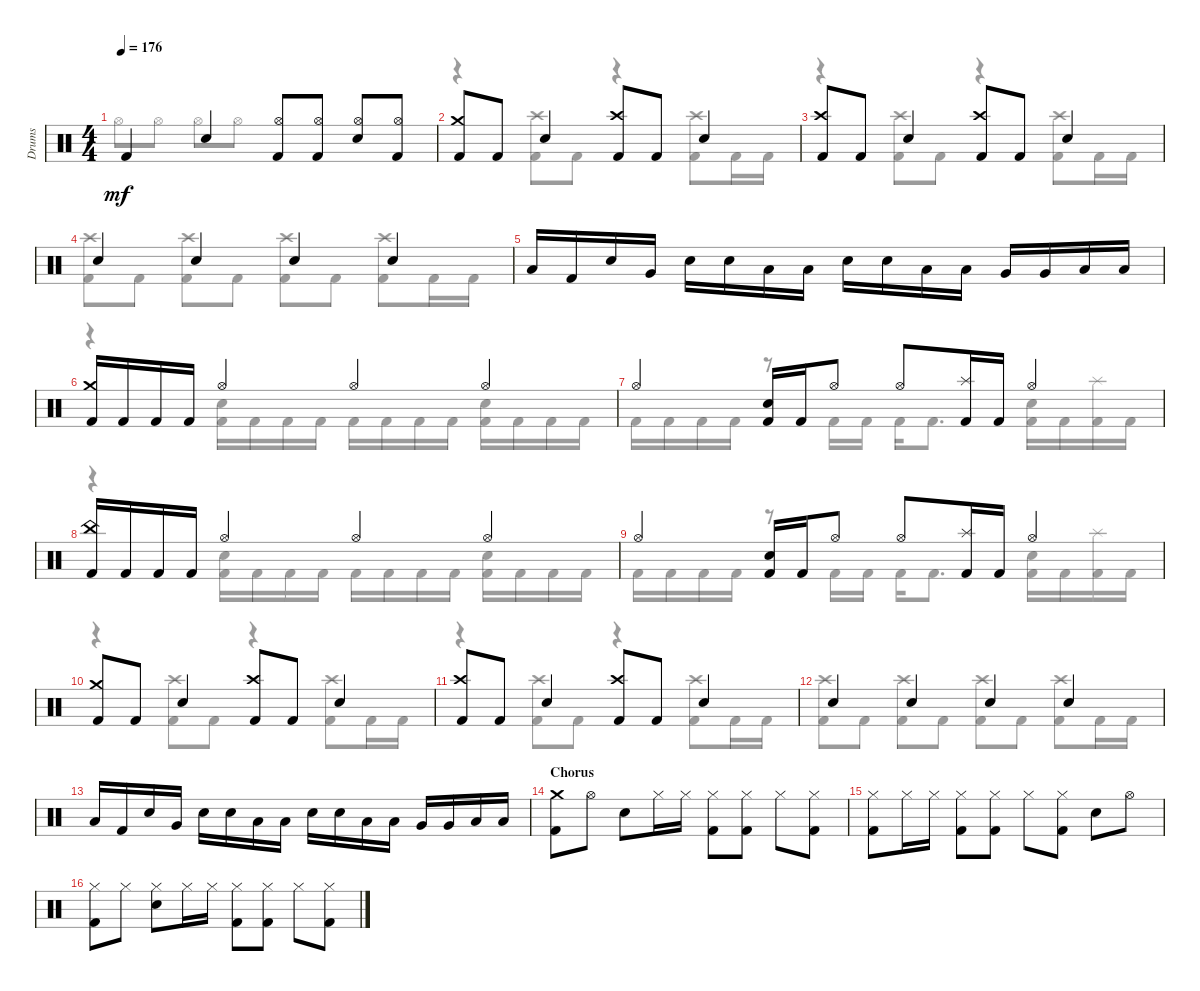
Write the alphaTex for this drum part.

\track ("Drums" "Drums") {instrument percussion}
\staff {score}
\articulation defaults
\voice
\ts (4 4)
\tempo 176
\clef neutral
\ks aminor "Kick (hit) 2".4{dy mf} "Snare (hit) 2".4
("Kick (hit) 2" "Hi-Hat (open)").8 ("Kick (hit) 2" "Hi-Hat (open)").8 ("Hi-Hat (open)" "Snare (hit) 2").8 ("Hi-Hat (open)" "Kick (hit) 2").8 |
("Crash medium (hit)" "Kick (hit) 2").8 "Kick (hit) 2".8 "Snare (hit) 2".4 ("Kick (hit) 2" "Crash high (hit)").8 "Kick (hit) 2".8 "Snare (hit) 2".4 |
("Crash high (hit)" "Kick (hit) 2").8 "Kick (hit) 2".8 "Snare (hit) 2".4 ("Kick (hit) 2" "Crash high (hit)").8 "Kick (hit) 2".8 "Snare (hit) 2".4 |
"Snare (hit) 2".4 "Snare (hit) 2".4 "Snare (hit) 2".4 "Snare (hit) 2".4 |
"Low Tom (hit)".16 "Kick (hit) 2".16 "Snare (hit) 2".16 "Very Low Tom (hit)".16 "Snare (hit) 2".16 "Snare (hit) 2".16 "Low Floor Tom (hit)".16 "Low Floor Tom (hit)".16 "Snare (hit) 2".16 "Snare (hit) 2".16 "Low Tom (hit)".16 "Low Tom (hit)".16 "Very Low Tom (hit)".16 "Very Low Tom (hit)".16 "Low Floor Tom (hit)".16 "Low Floor Tom (hit)".16 |
("Crash medium (hit)" "Kick (hit) 2").16 "Kick (hit) 2".16 "Kick (hit) 2".16 "Kick (hit) 2".16 "Hi-Hat (open)".4 "Hi-Hat (open)".4 "Hi-Hat (open)".4 |
"Hi-Hat (open)".4 ("Kick (hit) 2" "Snare (hit) 2").16 "Kick (hit) 2".16 "Hi-Hat (open)".8 "Hi-Hat (open)".8 ("Splash (hit)" "Kick (hit) 2").16 "Kick (hit) 2".16 "Hi-Hat (open)".4 |
("Kick (hit) 2" "China (hit)").16 "Kick (hit) 2".16 "Kick (hit) 2".16 "Kick (hit) 2".16 "Hi-Hat (open)".4 "Hi-Hat (open)".4 "Hi-Hat (open)".4 |
"Hi-Hat (open)".4 ("Snare (hit) 2" "Kick (hit) 2").16 "Kick (hit) 2".16 "Hi-Hat (open)".8 "Hi-Hat (open)".8 ("Kick (hit) 2" "Splash (hit)").16 "Kick (hit) 2".16 "Hi-Hat (open)".4 |
("Kick (hit) 2" "Crash medium (hit)").8 "Kick (hit) 2".8 "Snare (hit) 2".4 ("Crash high (hit)" "Kick (hit) 2").8 "Kick (hit) 2".8 "Snare (hit) 2".4 |
("Kick (hit) 2" "Crash high (hit)").8 "Kick (hit) 2".8 "Snare (hit) 2".4 ("Crash high (hit)" "Kick (hit) 2").8 "Kick (hit) 2".8 "Snare (hit) 2".4 |
"Snare (hit) 2".4 "Snare (hit) 2".4 "Snare (hit) 2".4 "Snare (hit) 2".4 |
"Low Tom (hit)".16 "Kick (hit) 2".16 "Snare (hit) 2".16 "Very Low Tom (hit)".16 "Snare (hit) 2".16 "Snare (hit) 2".16 "Low Floor Tom (hit)".16 "Low Floor Tom (hit)".16 "Snare (hit) 2".16 "Snare (hit) 2".16 "Low Tom (hit)".16 "Low Tom (hit)".16 "Very Low Tom (hit)".16 "Very Low Tom (hit)".16 "Low Floor Tom (hit)".16 "Low Floor Tom (hit)".16 |
\section ("" "Chorus")
("Kick (hit) 2" "Crash medium (hit)").8 "Hi-Hat (open)".8 "Snare (hit) 2".8 "Hi-Hat (closed)".16 "Hi-Hat (closed)".16 ("Hi-Hat (closed)" "Kick (hit) 2").8 ("Kick (hit) 2" "Hi-Hat (closed)").8 "Hi-Hat (closed)".8 ("Kick (hit) 2" "Hi-Hat (closed)").8 |
("Kick (hit) 2" "Hi-Hat (closed)").8 "Hi-Hat (closed)".16 "Hi-Hat (closed)".16 ("Hi-Hat (closed)" "Kick (hit) 2").8 ("Kick (hit) 2" "Hi-Hat (closed)").8 "Hi-Hat (closed)".8 ("Kick (hit) 2" "Hi-Hat (closed)").8 "Snare (hit) 2".8 "Hi-Hat (open)".8 |
("Hi-Hat (closed)" "Kick (hit) 2").8 "Hi-Hat (closed)".8 ("Hi-Hat (closed)" "Snare (hit) 2").8 "Hi-Hat (closed)".16 "Hi-Hat (closed)".16 ("Kick (hit) 2" "Hi-Hat (closed)").8 ("Hi-Hat (closed)" "Kick (hit) 2").8 "Hi-Hat (closed)".8 ("Hi-Hat (closed)" "Kick (hit) 2").8
\voice
\clef neutral
\ottava regular
\simile none
\ks aminor "Hi-Hat (open)".8{dy mf} "Hi-Hat (open)".8 "Hi-Hat (open)".8 "Hi-Hat (open)".8
|
r.4 ("Kick (hit) 2" "Crash high (hit)").8 "Kick (hit) 2".8 r.4 ("Crash high (hit)" "Kick (hit) 2").8 "Kick (hit) 2".16 "Kick (hit) 2".16 |
r.4 ("Kick (hit) 2" "Crash high (hit)").8 "Kick (hit) 2".8 r.4 ("Crash high (hit)" "Kick (hit) 2").8 "Kick (hit) 2".16 "Kick (hit) 2".16 |
("Kick (hit) 2" "Crash high (hit)").8 "Kick (hit) 2".8 ("Crash high (hit)" "Kick (hit) 2").8 "Kick (hit) 2".8 ("Kick (hit) 2" "Crash high (hit)").8 "Kick (hit) 2".8 ("Crash high (hit)" "Kick (hit) 2").8 "Kick (hit) 2".16 "Kick (hit) 2".16 |
|
r.4 ("Kick (hit) 2" "Snare (hit) 2").16 "Kick (hit) 2".16 "Kick (hit) 2".16 "Kick (hit) 2".16 "Kick (hit) 2".16 "Kick (hit) 2".16 "Kick (hit) 2".16 "Kick (hit) 2".16 ("Kick (hit) 2" "Snare (hit) 2").16 "Kick (hit) 2".16 "Kick (hit) 2".16 "Kick (hit) 2".16 |
"Kick (hit) 2".16 "Kick (hit) 2".16 "Kick (hit) 2".16 "Kick (hit) 2".16 r.8 "Kick (hit) 2".16 "Kick (hit) 2".16 "Kick (hit) 2".16 "Kick (hit) 2".8{d} ("Snare (hit) 2" "Kick (hit) 2").16 "Kick (hit) 2".16 ("Splash (hit)" "Kick (hit) 2").16 "Kick (hit) 2".16 |
r.4 ("Kick (hit) 2" "Snare (hit) 2").16 "Kick (hit) 2".16 "Kick (hit) 2".16 "Kick (hit) 2".16 "Kick (hit) 2".16 "Kick (hit) 2".16 "Kick (hit) 2".16 "Kick (hit) 2".16 ("Snare (hit) 2" "Kick (hit) 2").16 "Kick (hit) 2".16 "Kick (hit) 2".16 "Kick (hit) 2".16 |
"Kick (hit) 2".16 "Kick (hit) 2".16 "Kick (hit) 2".16 "Kick (hit) 2".16 r.8 "Kick (hit) 2".16 "Kick (hit) 2".16 "Kick (hit) 2".16 "Kick (hit) 2".8{d} ("Kick (hit) 2" "Snare (hit) 2").16 "Kick (hit) 2".16 ("Kick (hit) 2" "Splash (hit)").16 "Kick (hit) 2".16 |
r.4 ("Kick (hit) 2" "Crash high (hit)").8 "Kick (hit) 2".8 r.4 ("Crash high (hit)" "Kick (hit) 2").8 "Kick (hit) 2".16 "Kick (hit) 2".16 |
r.4 ("Kick (hit) 2" "Crash high (hit)").8 "Kick (hit) 2".8 r.4 ("Crash high (hit)" "Kick (hit) 2").8 "Kick (hit) 2".16 "Kick (hit) 2".16 |
("Crash high (hit)" "Kick (hit) 2").8 "Kick (hit) 2".8 ("Kick (hit) 2" "Crash high (hit)").8 "Kick (hit) 2".8 ("Crash high (hit)" "Kick (hit) 2").8 "Kick (hit) 2".8 ("Kick (hit) 2" "Crash high (hit)").8 "Kick (hit) 2".16 "Kick (hit) 2".16 |
|
|
|
